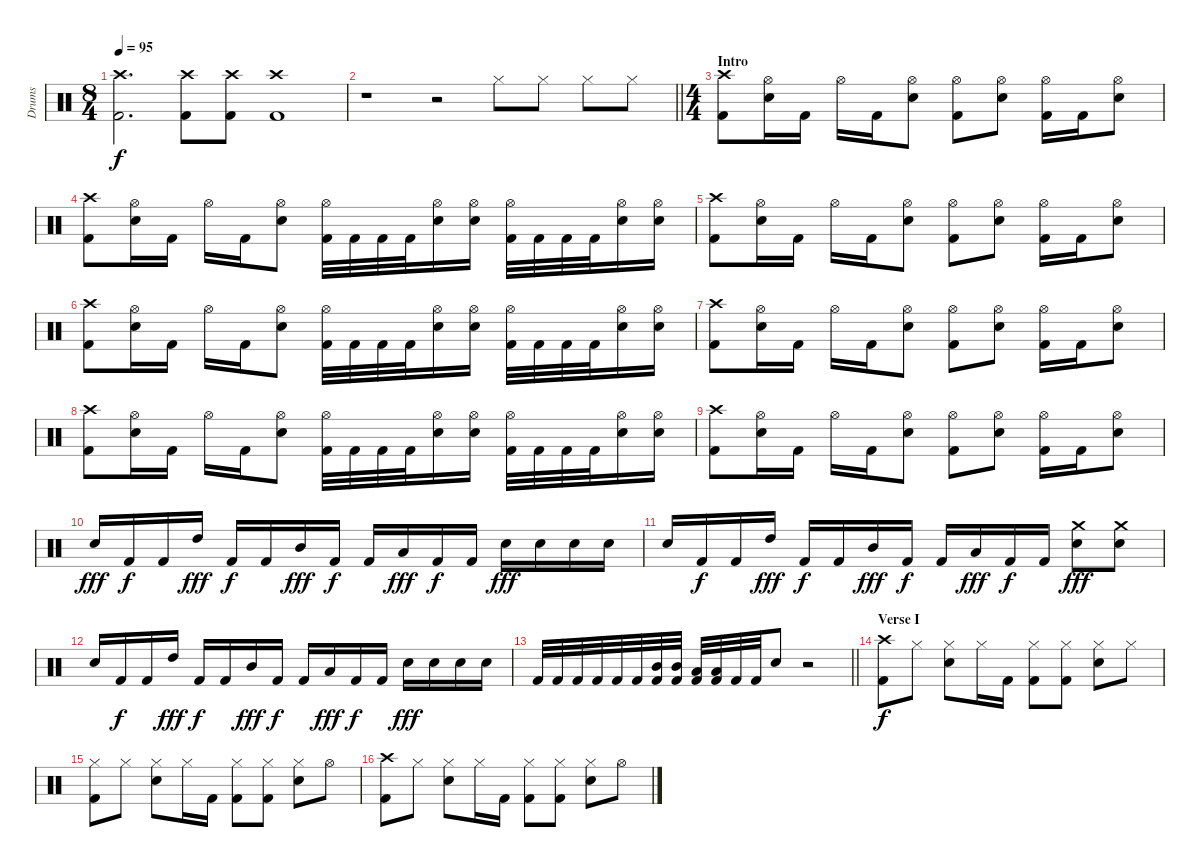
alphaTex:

\track ("Drums" "Drums") {instrument percussion}
\staff {score}
\articulation defaults
\ts (8 4)
\tempo 95
\clef neutral
\ks c
("Crash high (hit)" "Kick (hit) 2").2{d dy f} ("Kick (hit) 2" "Crash high (hit)").8 ("Kick (hit) 2" "Crash high (hit)").8 ("Kick (hit) 2" "Crash high (hit)").1 |
\barLineRight lightlight
r.1 r.2 "Hi-Hat (closed)".8 "Hi-Hat (closed)".8 "Hi-Hat (closed)".8 "Hi-Hat (closed)".8 |
\ts (4 4)
\section ("" "Intro")
("Crash high (hit)" "Kick (hit) 2").8 ("Hi-Hat (open)" "Snare (hit) 2").16 "Kick (hit) 2".16 "Hi-Hat (open)".16 "Kick (hit) 2".16 ("Hi-Hat (open)" "Snare (hit) 2").8 ("Hi-Hat (open)" "Kick (hit) 2").8 ("Hi-Hat (open)" "Snare (hit) 2").8 ("Hi-Hat (open)" "Kick (hit) 2").16 "Kick (hit) 2".16 ("Hi-Hat (open)" "Snare (hit) 2").8 |
("Crash high (hit)" "Kick (hit) 2").8 ("Hi-Hat (open)" "Snare (hit) 2").16 "Kick (hit) 2".16 "Hi-Hat (open)".16 "Kick (hit) 2".16 ("Hi-Hat (open)" "Snare (hit) 2").8 ("Hi-Hat (open)" "Kick (hit) 2").32 "Kick (hit) 2".32 "Kick (hit) 2".32 "Kick (hit) 2".32 ("Hi-Hat (open)" "Snare (hit) 2").16 ("Hi-Hat (open)" "Snare (hit) 2").16 ("Hi-Hat (open)" "Kick (hit) 2").32 "Kick (hit) 2".32 "Kick (hit) 2".32 "Kick (hit) 2".32 ("Hi-Hat (open)" "Snare (hit) 2").16 ("Hi-Hat (open)" "Snare (hit) 2").16 |
("Crash high (hit)" "Kick (hit) 2").8 ("Hi-Hat (open)" "Snare (hit) 2").16 "Kick (hit) 2".16 "Hi-Hat (open)".16 "Kick (hit) 2".16 ("Hi-Hat (open)" "Snare (hit) 2").8 ("Hi-Hat (open)" "Kick (hit) 2").8 ("Hi-Hat (open)" "Snare (hit) 2").8 ("Hi-Hat (open)" "Kick (hit) 2").16 "Kick (hit) 2".16 ("Hi-Hat (open)" "Snare (hit) 2").8 |
("Crash high (hit)" "Kick (hit) 2").8 ("Hi-Hat (open)" "Snare (hit) 2").16 "Kick (hit) 2".16 "Hi-Hat (open)".16 "Kick (hit) 2".16 ("Hi-Hat (open)" "Snare (hit) 2").8 ("Hi-Hat (open)" "Kick (hit) 2").32 "Kick (hit) 2".32 "Kick (hit) 2".32 "Kick (hit) 2".32 ("Hi-Hat (open)" "Snare (hit) 2").16 ("Hi-Hat (open)" "Snare (hit) 2").16 ("Hi-Hat (open)" "Kick (hit) 2").32 "Kick (hit) 2".32 "Kick (hit) 2".32 "Kick (hit) 2".32 ("Hi-Hat (open)" "Snare (hit) 2").16 ("Hi-Hat (open)" "Snare (hit) 2").16 |
("Crash high (hit)" "Kick (hit) 2").8 ("Hi-Hat (open)" "Snare (hit) 2").16 "Kick (hit) 2".16 "Hi-Hat (open)".16 "Kick (hit) 2".16 ("Hi-Hat (open)" "Snare (hit) 2").8 ("Hi-Hat (open)" "Kick (hit) 2").8 ("Hi-Hat (open)" "Snare (hit) 2").8 ("Hi-Hat (open)" "Kick (hit) 2").16 "Kick (hit) 2".16 ("Hi-Hat (open)" "Snare (hit) 2").8 |
("Crash high (hit)" "Kick (hit) 2").8 ("Hi-Hat (open)" "Snare (hit) 2").16 "Kick (hit) 2".16 "Hi-Hat (open)".16 "Kick (hit) 2".16 ("Hi-Hat (open)" "Snare (hit) 2").8 ("Hi-Hat (open)" "Kick (hit) 2").32 "Kick (hit) 2".32 "Kick (hit) 2".32 "Kick (hit) 2".32 ("Hi-Hat (open)" "Snare (hit) 2").16 ("Hi-Hat (open)" "Snare (hit) 2").16 ("Hi-Hat (open)" "Kick (hit) 2").32 "Kick (hit) 2".32 "Kick (hit) 2".32 "Kick (hit) 2".32 ("Hi-Hat (open)" "Snare (hit) 2").16 ("Hi-Hat (open)" "Snare (hit) 2").16 |
("Crash high (hit)" "Kick (hit) 2").8 ("Hi-Hat (open)" "Snare (hit) 2").16 "Kick (hit) 2".16 "Hi-Hat (open)".16 "Kick (hit) 2".16 ("Hi-Hat (open)" "Snare (hit) 2").8 ("Hi-Hat (open)" "Kick (hit) 2").8 ("Hi-Hat (open)" "Snare (hit) 2").8 ("Hi-Hat (open)" "Kick (hit) 2").16 "Kick (hit) 2".16 ("Hi-Hat (open)" "Snare (hit) 2").8 |
"Snare (hit) 2".16{dy fff} "Kick (hit) 2".16{dy f} "Kick (hit) 2".16 "High Tom (hit)".16{dy fff} "Kick (hit) 2".16{dy f} "Kick (hit) 2".16 "Mid Tom (hit)".16{dy fff} "Kick (hit) 2".16{dy f} "Kick (hit) 2".16 "Low Tom (hit)".16{dy fff} "Kick (hit) 2".16{dy f} "Kick (hit) 2".16 "Snare (hit) 2".16{dy fff} "Snare (hit) 2".16 "Snare (hit) 2".16 "Snare (hit) 2".16 |
"Snare (hit) 2".16 "Kick (hit) 2".16{dy f} "Kick (hit) 2".16 "High Tom (hit)".16{dy fff} "Kick (hit) 2".16{dy f} "Kick (hit) 2".16 "Mid Tom (hit)".16{dy fff} "Kick (hit) 2".16{dy f} "Kick (hit) 2".16 "Low Tom (hit)".16{dy fff} "Kick (hit) 2".16{dy f} "Kick (hit) 2".16 ("Snare (hit) 2" "Crash medium (hit)").8{dy fff} ("Snare (hit) 2" "Crash medium (hit)").8 |
"Snare (hit) 2".16 "Kick (hit) 2".16{dy f} "Kick (hit) 2".16 "High Tom (hit)".16{dy fff} "Kick (hit) 2".16{dy f} "Kick (hit) 2".16 "Mid Tom (hit)".16{dy fff} "Kick (hit) 2".16{dy f} "Kick (hit) 2".16 "Low Tom (hit)".16{dy fff} "Kick (hit) 2".16{dy f} "Kick (hit) 2".16 "Snare (hit) 2".16{dy fff} "Snare (hit) 2".16 "Snare (hit) 2".16 "Snare (hit) 2".16 |
\barLineRight lightlight "Kick (hit) 2".32 "Kick (hit) 2".32 "Kick (hit) 2".32 "Kick (hit) 2".32 "Kick (hit) 2".32 "Kick (hit) 2".32
("Mid Tom (hit)" "Kick (hit) 2").32 ("Mid Tom (hit)" "Kick (hit) 2").32 ("Low Tom (hit)" "Kick (hit) 2").32 ("Low Tom (hit)" "Kick (hit) 2").32 "Kick (hit) 2".32 "Kick (hit) 2".32 "Snare (hit) 2".8 r.2 |
\section ("" "Verse I")
("Crash high (hit)" "Kick (hit) 2").8{dy f} "Hi-Hat (closed)".8 ("Hi-Hat (closed)" "Snare (hit) 2").8 "Hi-Hat (closed)".16 "Kick (hit) 2".16 ("Hi-Hat (closed)" "Kick (hit) 2").8 ("Hi-Hat (closed)" "Kick (hit) 2").8 ("Hi-Hat (closed)" "Snare (hit) 2").8 "Hi-Hat (closed)".8 |
("Hi-Hat (closed)" "Kick (hit) 2").8 "Hi-Hat (closed)".8 ("Hi-Hat (closed)" "Snare (hit) 2").8 "Hi-Hat (closed)".16 "Kick (hit) 2".16 ("Hi-Hat (closed)" "Kick (hit) 2").8 ("Hi-Hat (closed)" "Kick (hit) 2").8 ("Hi-Hat (closed)" "Snare (hit) 2").8 "Hi-Hat (open)".8 |
("Crash high (hit)" "Kick (hit) 2").8 "Hi-Hat (closed)".8 ("Hi-Hat (closed)" "Snare (hit) 2").8 "Hi-Hat (closed)".16 "Kick (hit) 2".16 ("Hi-Hat (closed)" "Kick (hit) 2").8 ("Hi-Hat (closed)" "Kick (hit) 2").8 ("Hi-Hat (closed)" "Snare (hit) 2").8 "Hi-Hat (open)".8
